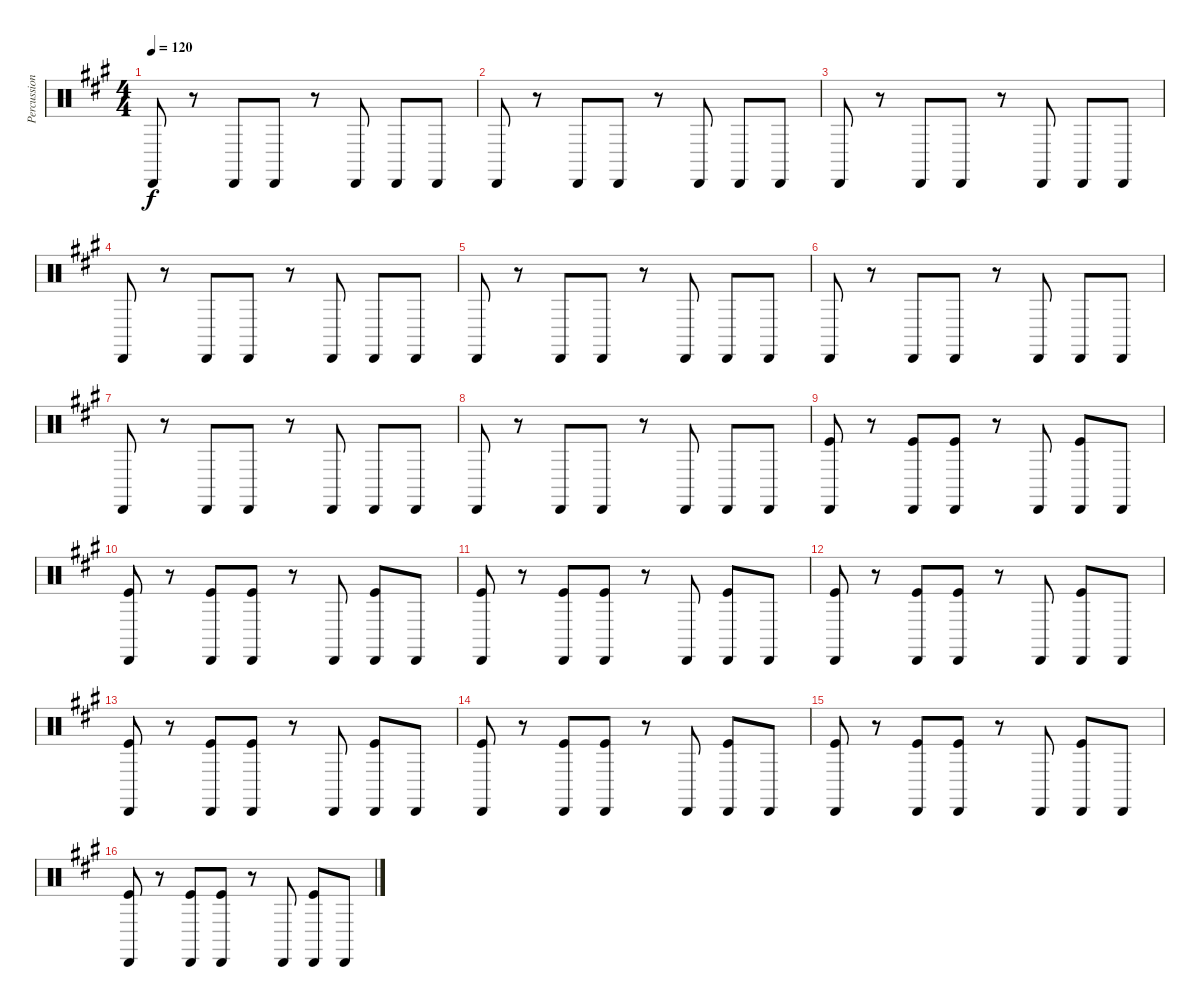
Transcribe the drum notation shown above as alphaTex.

\track ("Percussion" "Percussion") {instrument percussion}
\staff {score}
\articulation defaults
\ts (4 4)
\tempo 120
\clef neutral
\ks f#minor "Cabasa (hit)".8{dy f}
r.8 "Cabasa (hit)".8 "Cabasa (hit)".8 r.8 "Cabasa (hit)".8 "Cabasa (hit)".8 "Cabasa (hit)".8 |
"Cabasa (hit)".8 r.8 "Cabasa (hit)".8 "Cabasa (hit)".8 r.8 "Cabasa (hit)".8 "Cabasa (hit)".8 "Cabasa (hit)".8 |
"Cabasa (hit)".8 r.8 "Cabasa (hit)".8 "Cabasa (hit)".8 r.8 "Cabasa (hit)".8 "Cabasa (hit)".8 "Cabasa (hit)".8 |
"Cabasa (hit)".8 r.8 "Cabasa (hit)".8 "Cabasa (hit)".8 r.8 "Cabasa (hit)".8 "Cabasa (hit)".8 "Cabasa (hit)".8 |
"Cabasa (hit)".8 r.8 "Cabasa (hit)".8 "Cabasa (hit)".8 r.8 "Cabasa (hit)".8 "Cabasa (hit)".8 "Cabasa (hit)".8 |
"Cabasa (hit)".8 r.8 "Cabasa (hit)".8 "Cabasa (hit)".8 r.8 "Cabasa (hit)".8 "Cabasa (hit)".8 "Cabasa (hit)".8 |
"Cabasa (hit)".8 r.8 "Cabasa (hit)".8 "Cabasa (hit)".8 r.8 "Cabasa (hit)".8 "Cabasa (hit)".8 "Cabasa (hit)".8 |
"Cabasa (hit)".8 r.8 "Cabasa (hit)".8 "Cabasa (hit)".8 r.8 "Cabasa (hit)".8 "Cabasa (hit)".8 "Cabasa (hit)".8 |
("Kick (hit)" "Cabasa (hit)").8 r.8 ("Kick (hit)" "Cabasa (hit)").8 ("Kick (hit)" "Cabasa (hit)").8 r.8 "Cabasa (hit)".8 ("Kick (hit)" "Cabasa (hit)").8 "Cabasa (hit)".8 |
("Kick (hit)" "Cabasa (hit)").8 r.8 ("Kick (hit)" "Cabasa (hit)").8 ("Kick (hit)" "Cabasa (hit)").8 r.8 "Cabasa (hit)".8 ("Kick (hit)" "Cabasa (hit)").8 "Cabasa (hit)".8 |
("Kick (hit)" "Cabasa (hit)").8 r.8 ("Kick (hit)" "Cabasa (hit)").8 ("Kick (hit)" "Cabasa (hit)").8 r.8 "Cabasa (hit)".8 ("Kick (hit)" "Cabasa (hit)").8 "Cabasa (hit)".8 |
("Kick (hit)" "Cabasa (hit)").8 r.8 ("Kick (hit)" "Cabasa (hit)").8 ("Kick (hit)" "Cabasa (hit)").8 r.8 "Cabasa (hit)".8 ("Kick (hit)" "Cabasa (hit)").8 "Cabasa (hit)".8 |
("Kick (hit)" "Cabasa (hit)").8 r.8 ("Kick (hit)" "Cabasa (hit)").8 ("Kick (hit)" "Cabasa (hit)").8 r.8 "Cabasa (hit)".8 ("Kick (hit)" "Cabasa (hit)").8 "Cabasa (hit)".8 |
("Kick (hit)" "Cabasa (hit)").8 r.8 ("Kick (hit)" "Cabasa (hit)").8 ("Kick (hit)" "Cabasa (hit)").8 r.8 "Cabasa (hit)".8 ("Kick (hit)" "Cabasa (hit)").8 "Cabasa (hit)".8 |
("Kick (hit)" "Cabasa (hit)").8 r.8 ("Kick (hit)" "Cabasa (hit)").8 ("Kick (hit)" "Cabasa (hit)").8 r.8 "Cabasa (hit)".8 ("Kick (hit)" "Cabasa (hit)").8 "Cabasa (hit)".8 |
("Kick (hit)" "Cabasa (hit)").8 r.8 ("Kick (hit)" "Cabasa (hit)").8 ("Kick (hit)" "Cabasa (hit)").8 r.8 "Cabasa (hit)".8 ("Kick (hit)" "Cabasa (hit)").8 "Cabasa (hit)".8
